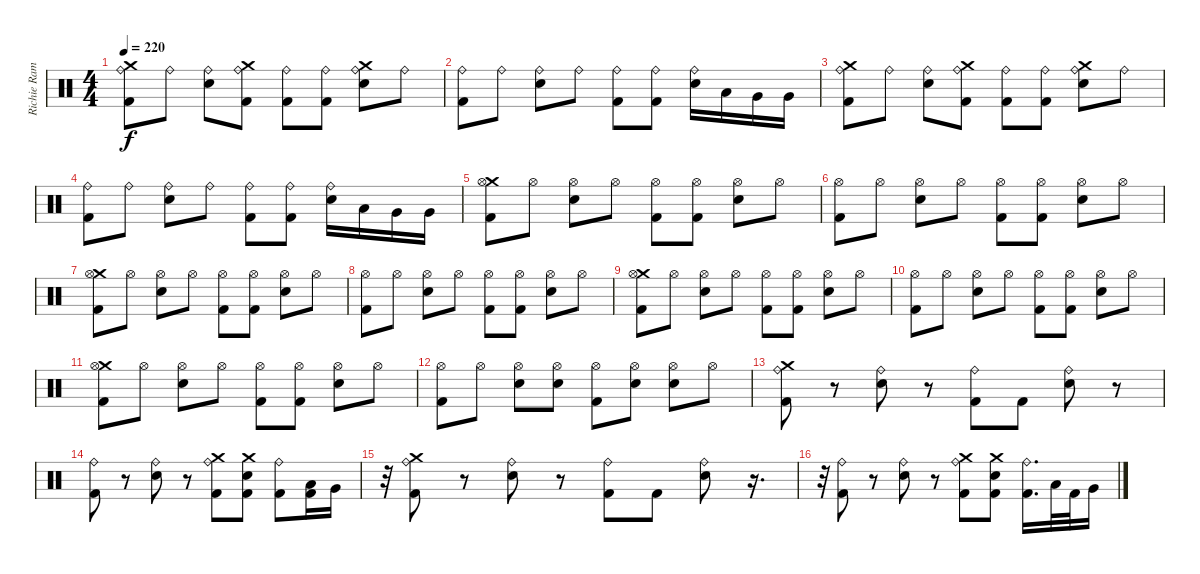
\track ("Richie Ramone" "Richie Ram") {instrument percussion}
\staff {score}
\articulation defaults
\ts (4 4)
\tempo 220
\clef neutral
\ks c
("Crash medium (hit)" "Kick (hit) 2" "Ride (bell)").8{dy f} "Ride (bell)".8 ("Electric Snare (hit)" "Ride (bell)").8 ("Kick (hit) 2" "Crash medium (hit)" "Ride (bell)").8 ("Kick (hit) 2" "Ride (bell)").8 ("Kick (hit) 2" "Ride (bell)").8 ("Crash medium (hit)" "Electric Snare (hit)" "Ride (bell)").8 "Ride (bell)".8 |
("Kick (hit) 2" "Ride (bell)").8 "Ride (bell)".8 ("Electric Snare (hit)" "Ride (bell)").8 "Ride (bell)".8 ("Kick (hit) 2" "Ride (bell)").8 ("Kick (hit) 2" "Ride (bell)").8 ("Electric Snare (hit)" "Ride (bell)").16 "Low Tom (hit)".16 "Very Low Tom (hit)".16 "Very Low Tom (hit)".16 |
("Crash medium (hit)" "Kick (hit) 2" "Ride (bell)").8 "Ride (bell)".8 ("Electric Snare (hit)" "Ride (bell)").8 ("Kick (hit) 2" "Crash medium (hit)" "Ride (bell)").8 ("Kick (hit) 2" "Ride (bell)").8 ("Kick (hit) 2" "Ride (bell)").8 ("Crash medium (hit)" "Electric Snare (hit)" "Ride (bell)").8 "Ride (bell)".8 |
("Kick (hit) 2" "Ride (bell)").8 "Ride (bell)".8 ("Electric Snare (hit)" "Ride (bell)").8 "Ride (bell)".8 ("Kick (hit) 2" "Ride (bell)").8 ("Kick (hit) 2" "Ride (bell)").8 ("Electric Snare (hit)" "Ride (bell)").16 "Low Tom (hit)".16 "Very Low Tom (hit)".16 "Very Low Tom (hit)".16 |
("Kick (hit) 2" "Crash medium (hit)" "Hi-Hat (open)").8 "Hi-Hat (open)".8 ("Electric Snare (hit)" "Hi-Hat (open)").8 "Hi-Hat (open)".8 ("Hi-Hat (open)" "Kick (hit) 2").8 ("Hi-Hat (open)" "Kick (hit) 2").8 ("Electric Snare (hit)" "Hi-Hat (open)").8 "Hi-Hat (open)".8 |
("Kick (hit) 2" "Hi-Hat (open)").8 "Hi-Hat (open)".8 ("Electric Snare (hit)" "Hi-Hat (open)").8 "Hi-Hat (open)".8 ("Hi-Hat (open)" "Kick (hit) 2").8 ("Hi-Hat (open)" "Kick (hit) 2").8 ("Electric Snare (hit)" "Hi-Hat (open)").8 "Hi-Hat (open)".8 |
("Kick (hit) 2" "Crash medium (hit)" "Hi-Hat (open)").8 "Hi-Hat (open)".8 ("Electric Snare (hit)" "Hi-Hat (open)").8 "Hi-Hat (open)".8 ("Hi-Hat (open)" "Kick (hit) 2").8 ("Hi-Hat (open)" "Kick (hit) 2").8 ("Electric Snare (hit)" "Hi-Hat (open)").8 "Hi-Hat (open)".8 |
("Kick (hit) 2" "Hi-Hat (open)").8 "Hi-Hat (open)".8 ("Electric Snare (hit)" "Hi-Hat (open)").8 "Hi-Hat (open)".8 ("Hi-Hat (open)" "Kick (hit) 2").8 ("Hi-Hat (open)" "Kick (hit) 2").8 ("Electric Snare (hit)" "Hi-Hat (open)").8 "Hi-Hat (open)".8 |
("Kick (hit) 2" "Crash medium (hit)" "Hi-Hat (open)").8 "Hi-Hat (open)".8 ("Electric Snare (hit)" "Hi-Hat (open)").8 "Hi-Hat (open)".8 ("Hi-Hat (open)" "Kick (hit) 2").8 ("Hi-Hat (open)" "Kick (hit) 2").8 ("Electric Snare (hit)" "Hi-Hat (open)").8 "Hi-Hat (open)".8 |
("Kick (hit) 2" "Hi-Hat (open)").8 "Hi-Hat (open)".8 ("Electric Snare (hit)" "Hi-Hat (open)").8 "Hi-Hat (open)".8 ("Hi-Hat (open)" "Kick (hit) 2").8 ("Hi-Hat (open)" "Kick (hit) 2").8 ("Electric Snare (hit)" "Hi-Hat (open)").8 "Hi-Hat (open)".8 |
("Kick (hit) 2" "Crash medium (hit)" "Hi-Hat (open)").8 "Hi-Hat (open)".8 ("Electric Snare (hit)" "Hi-Hat (open)").8 "Hi-Hat (open)".8 ("Hi-Hat (open)" "Kick (hit) 2").8 ("Hi-Hat (open)" "Kick (hit) 2").8 ("Electric Snare (hit)" "Hi-Hat (open)").8 "Hi-Hat (open)".8 |
("Kick (hit) 2" "Hi-Hat (open)").8 "Hi-Hat (open)".8 ("Electric Snare (hit)" "Hi-Hat (open)").8 ("Hi-Hat (open)" "Electric Snare (hit)").8 ("Kick (hit) 2" "Hi-Hat (open)").8 ("Electric Snare (hit)" "Hi-Hat (open)").8 ("Hi-Hat (open)" "Electric Snare (hit)").8 "Hi-Hat (open)".8 |
("Crash medium (hit)" "Ride (bell)" "Kick (hit) 2").8 r.8 ("Ride (bell)" "Electric Snare (hit)").8 r.8 ("Ride (bell)" "Kick (hit) 2").8 "Kick (hit) 2".8 ("Ride (bell)" "Electric Snare (hit)").8 r.8 |
("Ride (bell)" "Kick (hit) 2").8 r.8 ("Ride (bell)" "Electric Snare (hit)").8 r.8 ("Crash medium (hit)" "Ride (bell)" "Kick (hit) 2").8 ("Electric Snare (hit)" "Crash medium (hit)" "Kick (hit) 2").8 ("Kick (hit) 2" "Ride (bell)").8 ("Low Tom (hit)" "Kick (hit) 2").16 "Very Low Tom (hit)".16 |
r.32 ("Crash medium (hit)" "Ride (bell)" "Kick (hit) 2").8 r.8 ("Ride (bell)" "Electric Snare (hit)").8 r.8 ("Ride (bell)" "Kick (hit) 2").8 "Kick (hit) 2".8 ("Ride (bell)" "Electric Snare (hit)").8 r.16{d} |
r.32 ("Ride (bell)" "Kick (hit) 2").8 r.8 ("Ride (bell)" "Electric Snare (hit)").8 r.8 ("Crash medium (hit)" "Ride (bell)" "Kick (hit) 2").8 ("Electric Snare (hit)" "Crash medium (hit)" "Kick (hit) 2").8 ("Kick (hit) 2" "Ride (bell)").16{d} "Low Tom (hit)".32 "Kick (hit) 2".32 "Very Low Tom (hit)".16
